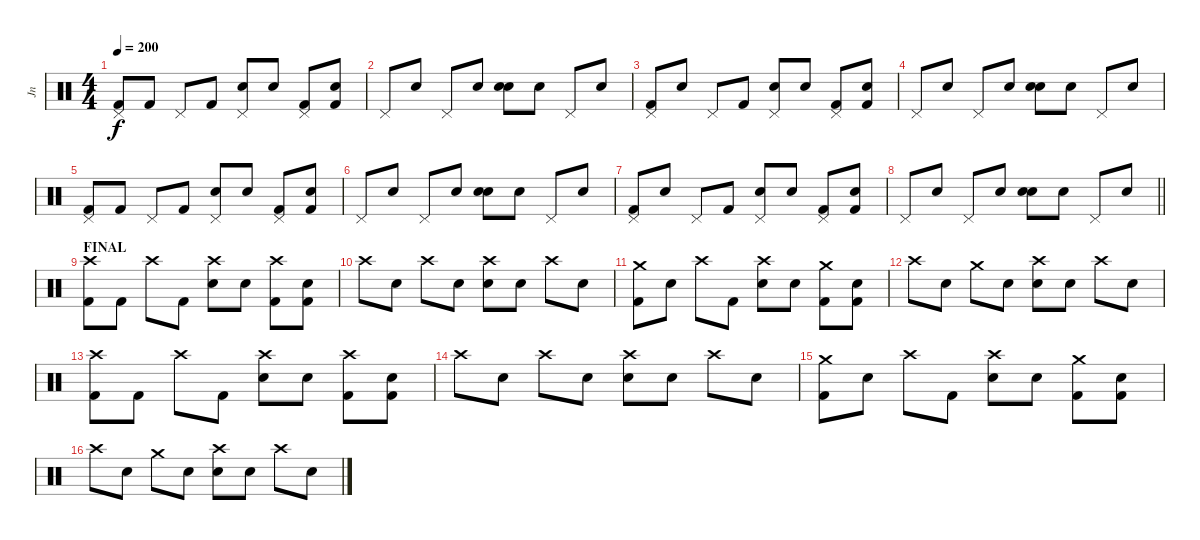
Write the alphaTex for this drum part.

\track ("Jn" "Jn") {instrument percussion}
\staff {score}
\articulation defaults
\ts (4 4)
\tempo 200
\clef neutral
\ks c
("Pedal Hi-Hat (hit)" "Kick (hit) 2").8{dy f} "Kick (hit) 2".8 "Pedal Hi-Hat (hit)".8 "Kick (hit) 2".8 ("Pedal Hi-Hat (hit)" "Electric Snare (hit)").8 "Snare (hit)".8 ("Pedal Hi-Hat (hit)" "Kick (hit) 2").8 ("Snare (hit)" "Kick (hit) 2").8 |
"Pedal Hi-Hat (hit)".8 "Snare (hit)".8 "Pedal Hi-Hat (hit)".8 "Snare (hit)".8 ("Snare (hit)" "Electric Snare (hit)").8 "Snare (hit)".8 "Pedal Hi-Hat (hit)".8 "Snare (hit)".8 |
("Pedal Hi-Hat (hit)" "Kick (hit) 2").8 "Electric Snare (hit)".8 "Pedal Hi-Hat (hit)".8 "Kick (hit) 2".8 ("Pedal Hi-Hat (hit)" "Electric Snare (hit)").8 "Snare (hit)".8 ("Pedal Hi-Hat (hit)" "Kick (hit) 2").8 ("Snare (hit)" "Kick (hit) 2").8 |
"Pedal Hi-Hat (hit)".8 "Snare (hit)".8 "Pedal Hi-Hat (hit)".8 "Snare (hit)".8 ("Snare (hit)" "Electric Snare (hit)").8 "Snare (hit)".8 "Pedal Hi-Hat (hit)".8 "Snare (hit)".8 |
("Pedal Hi-Hat (hit)" "Kick (hit) 2").8 "Kick (hit) 2".8 "Pedal Hi-Hat (hit)".8 "Kick (hit) 2".8 ("Pedal Hi-Hat (hit)" "Electric Snare (hit)").8 "Snare (hit)".8 ("Pedal Hi-Hat (hit)" "Kick (hit) 2").8 ("Snare (hit)" "Kick (hit) 2").8 |
"Pedal Hi-Hat (hit)".8 "Snare (hit)".8 "Pedal Hi-Hat (hit)".8 "Snare (hit)".8 ("Snare (hit)" "Electric Snare (hit)").8 "Snare (hit)".8 "Pedal Hi-Hat (hit)".8 "Snare (hit)".8 |
("Pedal Hi-Hat (hit)" "Kick (hit) 2").8 "Electric Snare (hit)".8 "Pedal Hi-Hat (hit)".8 "Kick (hit) 2".8 ("Pedal Hi-Hat (hit)" "Electric Snare (hit)").8 "Snare (hit)".8 ("Pedal Hi-Hat (hit)" "Kick (hit) 2").8 ("Snare (hit)" "Kick (hit) 2").8 |
\barLineRight lightlight "Pedal Hi-Hat (hit)".8 "Snare (hit)".8 "Pedal Hi-Hat (hit)".8 "Snare (hit)".8
("Snare (hit)" "Electric Snare (hit)").8 "Snare (hit)".8 "Pedal Hi-Hat (hit)".8 "Snare (hit)".8 |
\section ("" "FINAL")
("Crash high (hit)" "Kick (hit) 2").8 "Kick (hit) 2".8 "Crash high (hit)".8 "Kick (hit) 2".8 ("Crash high (hit)" "Electric Snare (hit)").8 "Snare (hit)".8 ("Crash high (hit)" "Kick (hit) 2").8 ("Snare (hit)" "Kick (hit) 2").8 |
"Crash high (hit)".8 "Snare (hit)".8 "Crash high (hit)".8 "Snare (hit)".8 ("Crash high (hit)" "Electric Snare (hit)").8 "Snare (hit)".8 "Crash high (hit)".8 "Snare (hit)".8 |
("Crash medium (hit)" "Kick (hit) 2").8 "Electric Snare (hit)".8 "Crash high (hit)".8 "Kick (hit) 2".8 ("Crash high (hit)" "Electric Snare (hit)").8 "Snare (hit)".8 ("Crash medium (hit)" "Kick (hit) 2").8 ("Snare (hit)" "Kick (hit) 2").8 |
"Crash high (hit)".8 "Snare (hit)".8 "Crash medium (hit)".8 "Snare (hit)".8 ("Crash high (hit)" "Electric Snare (hit)").8 "Snare (hit)".8 "Crash high (hit)".8 "Snare (hit)".8 |
("Crash high (hit)" "Kick (hit) 2").8 "Kick (hit) 2".8 "Crash high (hit)".8 "Kick (hit) 2".8 ("Crash high (hit)" "Electric Snare (hit)").8 "Snare (hit)".8 ("Crash high (hit)" "Kick (hit) 2").8 ("Snare (hit)" "Kick (hit) 2").8 |
"Crash high (hit)".8 "Snare (hit)".8 "Crash high (hit)".8 "Snare (hit)".8 ("Crash high (hit)" "Electric Snare (hit)").8 "Snare (hit)".8 "Crash high (hit)".8 "Snare (hit)".8 |
("Crash medium (hit)" "Kick (hit) 2").8 "Electric Snare (hit)".8 "Crash high (hit)".8 "Kick (hit) 2".8 ("Crash high (hit)" "Electric Snare (hit)").8 "Snare (hit)".8 ("Crash medium (hit)" "Kick (hit) 2").8 ("Snare (hit)" "Kick (hit) 2").8 |
"Crash high (hit)".8 "Snare (hit)".8 "Crash medium (hit)".8 "Snare (hit)".8 ("Crash high (hit)" "Electric Snare (hit)").8 "Snare (hit)".8 "Crash high (hit)".8 "Snare (hit)".8
